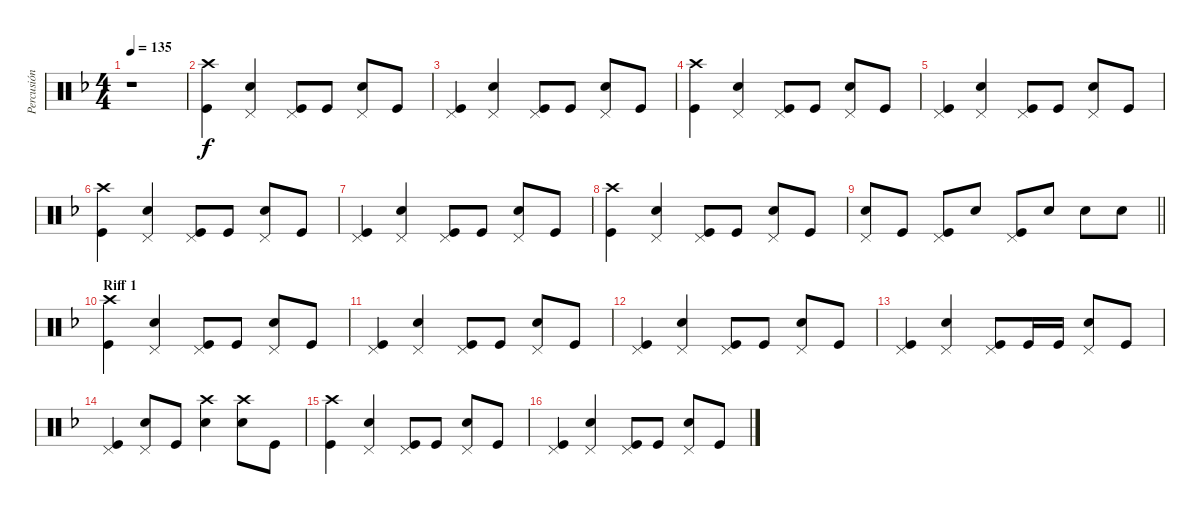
\track ("Percusión" "Percusión") {instrument percussion}
\staff {score}
\articulation defaults
\ts (4 4)
\tempo 135
\clef neutral
\ks dminor
r.1{dy f} |
("Crash high (hit)" "Kick (hit)").4 ("Pedal Hi-Hat (hit)" "Snare (hit) 2").4 ("Pedal Hi-Hat (hit)" "Kick (hit)").8 "Kick (hit)".8 ("Pedal Hi-Hat (hit)" "Snare (hit) 2").8 "Kick (hit)".8 |
("Pedal Hi-Hat (hit)" "Kick (hit)").4 ("Pedal Hi-Hat (hit)" "Snare (hit) 2").4 ("Pedal Hi-Hat (hit)" "Kick (hit)").8 "Kick (hit)".8 ("Pedal Hi-Hat (hit)" "Snare (hit) 2").8 "Kick (hit)".8 |
("Crash high (hit)" "Kick (hit)").4 ("Pedal Hi-Hat (hit)" "Snare (hit) 2").4 ("Pedal Hi-Hat (hit)" "Kick (hit)").8 "Kick (hit)".8 ("Pedal Hi-Hat (hit)" "Snare (hit) 2").8 "Kick (hit)".8 |
("Pedal Hi-Hat (hit)" "Kick (hit)").4 ("Pedal Hi-Hat (hit)" "Snare (hit) 2").4 ("Pedal Hi-Hat (hit)" "Kick (hit)").8 "Kick (hit)".8 ("Pedal Hi-Hat (hit)" "Snare (hit) 2").8 "Kick (hit)".8 |
("Crash high (hit)" "Kick (hit)").4 ("Pedal Hi-Hat (hit)" "Snare (hit) 2").4 ("Pedal Hi-Hat (hit)" "Kick (hit)").8 "Kick (hit)".8 ("Pedal Hi-Hat (hit)" "Snare (hit) 2").8 "Kick (hit)".8 |
("Pedal Hi-Hat (hit)" "Kick (hit)").4 ("Pedal Hi-Hat (hit)" "Snare (hit) 2").4 ("Pedal Hi-Hat (hit)" "Kick (hit)").8 "Kick (hit)".8 ("Pedal Hi-Hat (hit)" "Snare (hit) 2").8 "Kick (hit)".8 |
("Crash high (hit)" "Kick (hit)").4 ("Pedal Hi-Hat (hit)" "Snare (hit) 2").4 ("Pedal Hi-Hat (hit)" "Kick (hit)").8 "Kick (hit)".8 ("Pedal Hi-Hat (hit)" "Snare (hit) 2").8 "Kick (hit)".8 |
\barLineRight lightlight
("Pedal Hi-Hat (hit)" "Snare (hit) 2").8 "Kick (hit)".8 ("Pedal Hi-Hat (hit)" "Kick (hit)").8 "Snare (hit) 2".8 ("Pedal Hi-Hat (hit)" "Kick (hit)").8 "Snare (hit) 2".8 "Snare (hit) 2".8 "Snare (hit) 2".8 |
\section ("" "Riff 1")
("Crash high (hit)" "Kick (hit)").4 ("Pedal Hi-Hat (hit)" "Snare (hit) 2").4 ("Pedal Hi-Hat (hit)" "Kick (hit)").8 "Kick (hit)".8 ("Pedal Hi-Hat (hit)" "Snare (hit) 2").8 "Kick (hit)".8 |
("Pedal Hi-Hat (hit)" "Kick (hit)").4 ("Pedal Hi-Hat (hit)" "Snare (hit) 2").4 ("Pedal Hi-Hat (hit)" "Kick (hit)").8 "Kick (hit)".8 ("Pedal Hi-Hat (hit)" "Snare (hit) 2").8 "Kick (hit)".8 |
("Pedal Hi-Hat (hit)" "Kick (hit)").4 ("Pedal Hi-Hat (hit)" "Snare (hit) 2").4 ("Pedal Hi-Hat (hit)" "Kick (hit)").8 "Kick (hit)".8 ("Pedal Hi-Hat (hit)" "Snare (hit) 2").8 "Kick (hit)".8 |
("Pedal Hi-Hat (hit)" "Kick (hit)").4 ("Pedal Hi-Hat (hit)" "Snare (hit) 2").4 ("Pedal Hi-Hat (hit)" "Kick (hit)").8 "Kick (hit)".16 "Kick (hit)".16 ("Pedal Hi-Hat (hit)" "Snare (hit) 2").8 "Kick (hit)".8 |
("Pedal Hi-Hat (hit)" "Kick (hit)").4 ("Pedal Hi-Hat (hit)" "Snare (hit) 2").8 "Kick (hit)".8 ("Crash high (hit)" "Snare (hit) 2").4 ("Crash high (hit)" "Snare (hit) 2").8 "Kick (hit)".8 |
("Crash high (hit)" "Kick (hit)").4 ("Pedal Hi-Hat (hit)" "Snare (hit) 2").4 ("Pedal Hi-Hat (hit)" "Kick (hit)").8 "Kick (hit)".8 ("Pedal Hi-Hat (hit)" "Snare (hit) 2").8 "Kick (hit)".8 |
("Pedal Hi-Hat (hit)" "Kick (hit)").4 ("Pedal Hi-Hat (hit)" "Snare (hit) 2").4 ("Pedal Hi-Hat (hit)" "Kick (hit)").8 "Kick (hit)".8 ("Pedal Hi-Hat (hit)" "Snare (hit) 2").8 "Kick (hit)".8
